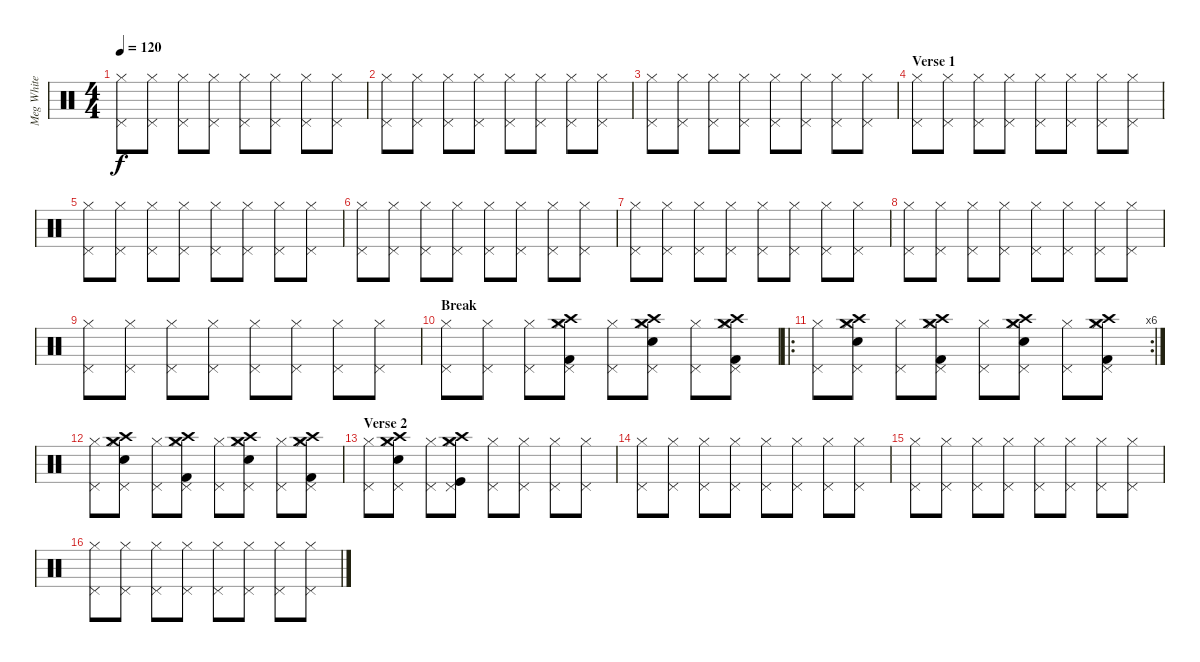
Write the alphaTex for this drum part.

\track ("Meg White" "Meg White") {instrument percussion}
\staff {score}
\articulation defaults
\ts (4 4)
\tempo 120
\clef neutral
\ks c
("Hi-Hat (closed)" "Pedal Hi-Hat (hit)").8{dy f} ("Hi-Hat (closed)" "Pedal Hi-Hat (hit)").8 ("Hi-Hat (closed)" "Pedal Hi-Hat (hit)").8 ("Hi-Hat (closed)" "Pedal Hi-Hat (hit)").8 ("Hi-Hat (closed)" "Pedal Hi-Hat (hit)").8 ("Hi-Hat (closed)" "Pedal Hi-Hat (hit)").8 ("Pedal Hi-Hat (hit)" "Hi-Hat (closed)").8 ("Pedal Hi-Hat (hit)" "Hi-Hat (closed)").8 |
("Hi-Hat (closed)" "Pedal Hi-Hat (hit)").8 ("Hi-Hat (closed)" "Pedal Hi-Hat (hit)").8 ("Hi-Hat (closed)" "Pedal Hi-Hat (hit)").8 ("Hi-Hat (closed)" "Pedal Hi-Hat (hit)").8 ("Hi-Hat (closed)" "Pedal Hi-Hat (hit)").8 ("Hi-Hat (closed)" "Pedal Hi-Hat (hit)").8 ("Pedal Hi-Hat (hit)" "Hi-Hat (closed)").8 ("Pedal Hi-Hat (hit)" "Hi-Hat (closed)").8 |
("Hi-Hat (closed)" "Pedal Hi-Hat (hit)").8 ("Hi-Hat (closed)" "Pedal Hi-Hat (hit)").8 ("Hi-Hat (closed)" "Pedal Hi-Hat (hit)").8 ("Hi-Hat (closed)" "Pedal Hi-Hat (hit)").8 ("Hi-Hat (closed)" "Pedal Hi-Hat (hit)").8 ("Hi-Hat (closed)" "Pedal Hi-Hat (hit)").8 ("Pedal Hi-Hat (hit)" "Hi-Hat (closed)").8 ("Pedal Hi-Hat (hit)" "Hi-Hat (closed)").8 |
\section ("" "Verse 1")
("Hi-Hat (closed)" "Pedal Hi-Hat (hit)").8 ("Hi-Hat (closed)" "Pedal Hi-Hat (hit)").8 ("Hi-Hat (closed)" "Pedal Hi-Hat (hit)").8 ("Hi-Hat (closed)" "Pedal Hi-Hat (hit)").8 ("Hi-Hat (closed)" "Pedal Hi-Hat (hit)").8 ("Hi-Hat (closed)" "Pedal Hi-Hat (hit)").8 ("Pedal Hi-Hat (hit)" "Hi-Hat (closed)").8 ("Pedal Hi-Hat (hit)" "Hi-Hat (closed)").8 |
("Hi-Hat (closed)" "Pedal Hi-Hat (hit)").8 ("Hi-Hat (closed)" "Pedal Hi-Hat (hit)").8 ("Hi-Hat (closed)" "Pedal Hi-Hat (hit)").8 ("Hi-Hat (closed)" "Pedal Hi-Hat (hit)").8 ("Hi-Hat (closed)" "Pedal Hi-Hat (hit)").8 ("Hi-Hat (closed)" "Pedal Hi-Hat (hit)").8 ("Pedal Hi-Hat (hit)" "Hi-Hat (closed)").8 ("Pedal Hi-Hat (hit)" "Hi-Hat (closed)").8 |
("Hi-Hat (closed)" "Pedal Hi-Hat (hit)").8 ("Hi-Hat (closed)" "Pedal Hi-Hat (hit)").8 ("Hi-Hat (closed)" "Pedal Hi-Hat (hit)").8 ("Hi-Hat (closed)" "Pedal Hi-Hat (hit)").8 ("Hi-Hat (closed)" "Pedal Hi-Hat (hit)").8 ("Hi-Hat (closed)" "Pedal Hi-Hat (hit)").8 ("Pedal Hi-Hat (hit)" "Hi-Hat (closed)").8 ("Pedal Hi-Hat (hit)" "Hi-Hat (closed)").8 |
("Hi-Hat (closed)" "Pedal Hi-Hat (hit)").8 ("Hi-Hat (closed)" "Pedal Hi-Hat (hit)").8 ("Hi-Hat (closed)" "Pedal Hi-Hat (hit)").8 ("Hi-Hat (closed)" "Pedal Hi-Hat (hit)").8 ("Hi-Hat (closed)" "Pedal Hi-Hat (hit)").8 ("Hi-Hat (closed)" "Pedal Hi-Hat (hit)").8 ("Pedal Hi-Hat (hit)" "Hi-Hat (closed)").8 ("Pedal Hi-Hat (hit)" "Hi-Hat (closed)").8 |
("Hi-Hat (closed)" "Pedal Hi-Hat (hit)").8 ("Hi-Hat (closed)" "Pedal Hi-Hat (hit)").8 ("Hi-Hat (closed)" "Pedal Hi-Hat (hit)").8 ("Hi-Hat (closed)" "Pedal Hi-Hat (hit)").8 ("Hi-Hat (closed)" "Pedal Hi-Hat (hit)").8 ("Hi-Hat (closed)" "Pedal Hi-Hat (hit)").8 ("Pedal Hi-Hat (hit)" "Hi-Hat (closed)").8 ("Pedal Hi-Hat (hit)" "Hi-Hat (closed)").8 |
("Hi-Hat (closed)" "Pedal Hi-Hat (hit)").8 ("Hi-Hat (closed)" "Pedal Hi-Hat (hit)").8 ("Hi-Hat (closed)" "Pedal Hi-Hat (hit)").8 ("Hi-Hat (closed)" "Pedal Hi-Hat (hit)").8 ("Hi-Hat (closed)" "Pedal Hi-Hat (hit)").8 ("Hi-Hat (closed)" "Pedal Hi-Hat (hit)").8 ("Pedal Hi-Hat (hit)" "Hi-Hat (closed)").8 ("Pedal Hi-Hat (hit)" "Hi-Hat (closed)").8 |
\section ("" "Break")
("Hi-Hat (closed)" "Pedal Hi-Hat (hit)").8 ("Hi-Hat (closed)" "Pedal Hi-Hat (hit)").8 ("Hi-Hat (closed)" "Pedal Hi-Hat (hit)").8 ("Hi-Hat (closed)" "Pedal Hi-Hat (hit)" "Kick (hit) 2" "Crash high (hit)" "Crash medium (hit)").8 ("Hi-Hat (closed)" "Pedal Hi-Hat (hit)").8 ("Hi-Hat (closed)" "Pedal Hi-Hat (hit)" "Electric Snare (hit)" "Crash high (hit)" "Crash medium (hit)").8 ("Pedal Hi-Hat (hit)" "Hi-Hat (closed)").8 ("Pedal Hi-Hat (hit)" "Hi-Hat (closed)" "Kick (hit) 2" "Crash high (hit)" "Crash medium (hit)").8 |
\ro
\rc 6
("Hi-Hat (closed)" "Pedal Hi-Hat (hit)").8 ("Hi-Hat (closed)" "Pedal Hi-Hat (hit)" "Electric Snare (hit)" "Crash high (hit)" "Crash medium (hit)").8 ("Hi-Hat (closed)" "Pedal Hi-Hat (hit)").8 ("Hi-Hat (closed)" "Pedal Hi-Hat (hit)" "Kick (hit) 2" "Crash high (hit)" "Crash medium (hit)").8 ("Hi-Hat (closed)" "Pedal Hi-Hat (hit)").8 ("Hi-Hat (closed)" "Pedal Hi-Hat (hit)" "Electric Snare (hit)" "Crash high (hit)" "Crash medium (hit)").8 ("Pedal Hi-Hat (hit)" "Hi-Hat (closed)").8 ("Pedal Hi-Hat (hit)" "Hi-Hat (closed)" "Kick (hit) 2" "Crash high (hit)" "Crash medium (hit)").8 |
("Hi-Hat (closed)" "Pedal Hi-Hat (hit)").8 ("Hi-Hat (closed)" "Pedal Hi-Hat (hit)" "Electric Snare (hit)" "Crash high (hit)" "Crash medium (hit)").8 ("Hi-Hat (closed)" "Pedal Hi-Hat (hit)").8 ("Hi-Hat (closed)" "Pedal Hi-Hat (hit)" "Kick (hit) 2" "Crash high (hit)" "Crash medium (hit)").8 ("Hi-Hat (closed)" "Pedal Hi-Hat (hit)").8 ("Hi-Hat (closed)" "Pedal Hi-Hat (hit)" "Electric Snare (hit)" "Crash high (hit)" "Crash medium (hit)").8 ("Pedal Hi-Hat (hit)" "Hi-Hat (closed)").8 ("Pedal Hi-Hat (hit)" "Hi-Hat (closed)" "Kick (hit) 2" "Crash high (hit)" "Crash medium (hit)").8 |
\section ("" "Verse 2")
("Hi-Hat (closed)" "Pedal Hi-Hat (hit)").8 ("Hi-Hat (closed)" "Pedal Hi-Hat (hit)" "Electric Snare (hit)" "Crash high (hit)" "Crash medium (hit)").8 ("Hi-Hat (closed)" "Pedal Hi-Hat (hit)").8 ("Hi-Hat (closed)" "Pedal Hi-Hat (hit)" "Kick (hit)" "Crash high (hit)" "Crash medium (hit)").8 ("Hi-Hat (closed)" "Pedal Hi-Hat (hit)").8 ("Hi-Hat (closed)" "Pedal Hi-Hat (hit)").8 ("Pedal Hi-Hat (hit)" "Hi-Hat (closed)").8 ("Pedal Hi-Hat (hit)" "Hi-Hat (closed)").8 |
("Hi-Hat (closed)" "Pedal Hi-Hat (hit)").8 ("Hi-Hat (closed)" "Pedal Hi-Hat (hit)").8 ("Hi-Hat (closed)" "Pedal Hi-Hat (hit)").8 ("Hi-Hat (closed)" "Pedal Hi-Hat (hit)").8 ("Hi-Hat (closed)" "Pedal Hi-Hat (hit)").8 ("Hi-Hat (closed)" "Pedal Hi-Hat (hit)").8 ("Pedal Hi-Hat (hit)" "Hi-Hat (closed)").8 ("Pedal Hi-Hat (hit)" "Hi-Hat (closed)").8 |
("Hi-Hat (closed)" "Pedal Hi-Hat (hit)").8 ("Hi-Hat (closed)" "Pedal Hi-Hat (hit)").8 ("Hi-Hat (closed)" "Pedal Hi-Hat (hit)").8 ("Hi-Hat (closed)" "Pedal Hi-Hat (hit)").8 ("Hi-Hat (closed)" "Pedal Hi-Hat (hit)").8 ("Hi-Hat (closed)" "Pedal Hi-Hat (hit)").8 ("Pedal Hi-Hat (hit)" "Hi-Hat (closed)").8 ("Pedal Hi-Hat (hit)" "Hi-Hat (closed)").8 |
("Hi-Hat (closed)" "Pedal Hi-Hat (hit)").8 ("Hi-Hat (closed)" "Pedal Hi-Hat (hit)").8 ("Hi-Hat (closed)" "Pedal Hi-Hat (hit)").8 ("Hi-Hat (closed)" "Pedal Hi-Hat (hit)").8 ("Hi-Hat (closed)" "Pedal Hi-Hat (hit)").8 ("Hi-Hat (closed)" "Pedal Hi-Hat (hit)").8 ("Pedal Hi-Hat (hit)" "Hi-Hat (closed)").8 ("Pedal Hi-Hat (hit)" "Hi-Hat (closed)").8
